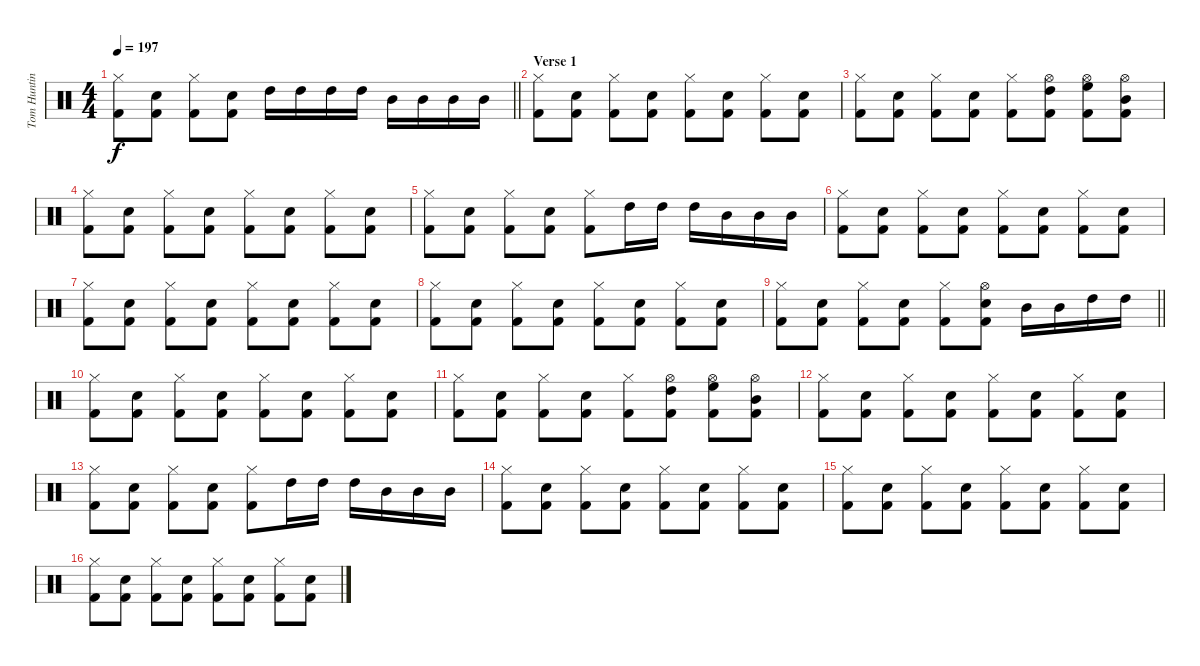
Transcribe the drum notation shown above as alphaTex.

\track ("Tom Hunting" "Tom Huntin") {instrument percussion}
\staff {score}
\articulation defaults
\ts (4 4)
\tempo 197
\clef neutral
\barLineRight lightlight
\ks c
("Hi-Hat (closed)" "Kick (hit) 2").8{dy f} ("Snare (hit) 2" "Kick (hit) 2").8 ("Hi-Hat (closed)" "Kick (hit) 2").8 ("Snare (hit) 2" "Kick (hit) 2").8 "High Tom (hit)".16 "High Tom (hit)".16 "High Tom (hit)".16 "High Tom (hit)".16 "Mid Tom (hit)".16 "Mid Tom (hit)".16 "Mid Tom (hit)".16 "Mid Tom (hit)".16 |
\section ("" "Verse 1")
("Hi-Hat (closed)" "Kick (hit) 2").8 ("Snare (hit) 2" "Kick (hit) 2").8 ("Hi-Hat (closed)" "Kick (hit) 2").8 ("Snare (hit) 2" "Kick (hit) 2").8 ("Hi-Hat (closed)" "Kick (hit) 2").8 ("Snare (hit) 2" "Kick (hit) 2").8 ("Hi-Hat (closed)" "Kick (hit) 2").8 ("Snare (hit) 2" "Kick (hit) 2").8 |
("Hi-Hat (closed)" "Kick (hit) 2").8 ("Snare (hit) 2" "Kick (hit) 2").8 ("Hi-Hat (closed)" "Kick (hit) 2").8 ("Snare (hit) 2" "Kick (hit) 2").8 ("Hi-Hat (closed)" "Kick (hit) 2").8 ("Hi-Hat (open)" "High Tom (hit)" "Kick (hit) 2").8 ("Hi-Hat (open)" "High Floor Tom (hit)" "Kick (hit) 2").8 ("Hi-Hat (open)" "Mid Tom (hit)" "Kick (hit) 2").8 |
("Hi-Hat (closed)" "Kick (hit) 2").8 ("Snare (hit) 2" "Kick (hit) 2").8 ("Hi-Hat (closed)" "Kick (hit) 2").8 ("Snare (hit) 2" "Kick (hit) 2").8 ("Hi-Hat (closed)" "Kick (hit) 2").8 ("Snare (hit) 2" "Kick (hit) 2").8 ("Hi-Hat (closed)" "Kick (hit) 2").8 ("Snare (hit) 2" "Kick (hit) 2").8 |
("Hi-Hat (closed)" "Kick (hit) 2").8 ("Snare (hit) 2" "Kick (hit) 2").8 ("Hi-Hat (closed)" "Kick (hit) 2").8 ("Snare (hit) 2" "Kick (hit) 2").8 ("Hi-Hat (closed)" "Kick (hit) 2").8 "High Tom (hit)".16 "High Tom (hit)".16 "High Tom (hit)".16 "Mid Tom (hit)".16 "Mid Tom (hit)".16 "Mid Tom (hit)".16 |
("Hi-Hat (closed)" "Kick (hit) 2").8 ("Snare (hit) 2" "Kick (hit) 2").8 ("Hi-Hat (closed)" "Kick (hit) 2").8 ("Snare (hit) 2" "Kick (hit) 2").8 ("Hi-Hat (closed)" "Kick (hit) 2").8 ("Snare (hit) 2" "Kick (hit) 2").8 ("Hi-Hat (closed)" "Kick (hit) 2").8 ("Snare (hit) 2" "Kick (hit) 2").8 |
("Hi-Hat (closed)" "Kick (hit) 2").8 ("Snare (hit) 2" "Kick (hit) 2").8 ("Hi-Hat (closed)" "Kick (hit) 2").8 ("Snare (hit) 2" "Kick (hit) 2").8 ("Hi-Hat (closed)" "Kick (hit) 2").8 ("Snare (hit) 2" "Kick (hit) 2").8 ("Hi-Hat (closed)" "Kick (hit) 2").8 ("Snare (hit) 2" "Kick (hit) 2").8 |
("Hi-Hat (closed)" "Kick (hit) 2").8 ("Snare (hit) 2" "Kick (hit) 2").8 ("Hi-Hat (closed)" "Kick (hit) 2").8 ("Snare (hit) 2" "Kick (hit) 2").8 ("Hi-Hat (closed)" "Kick (hit) 2").8 ("Snare (hit) 2" "Kick (hit) 2").8 ("Hi-Hat (closed)" "Kick (hit) 2").8 ("Snare (hit) 2" "Kick (hit) 2").8 |
\barLineRight lightlight
("Hi-Hat (closed)" "Kick (hit) 2").8 ("Snare (hit) 2" "Kick (hit) 2").8 ("Hi-Hat (closed)" "Kick (hit) 2").8 ("Snare (hit) 2" "Kick (hit) 2").8 ("Hi-Hat (closed)" "Kick (hit) 2").8 ("Hi-Hat (open)" "Snare (hit) 2" "Kick (hit) 2").8 "Mid Tom (hit)".16 "Mid Tom (hit)".16 "High Tom (hit)".16 "High Tom (hit)".16 |
("Hi-Hat (closed)" "Kick (hit) 2").8 ("Snare (hit) 2" "Kick (hit) 2").8 ("Hi-Hat (closed)" "Kick (hit) 2").8 ("Snare (hit) 2" "Kick (hit) 2").8 ("Hi-Hat (closed)" "Kick (hit) 2").8 ("Snare (hit) 2" "Kick (hit) 2").8 ("Hi-Hat (closed)" "Kick (hit) 2").8 ("Snare (hit) 2" "Kick (hit) 2").8 |
("Hi-Hat (closed)" "Kick (hit) 2").8 ("Snare (hit) 2" "Kick (hit) 2").8 ("Hi-Hat (closed)" "Kick (hit) 2").8 ("Snare (hit) 2" "Kick (hit) 2").8 ("Hi-Hat (closed)" "Kick (hit) 2").8 ("Hi-Hat (open)" "High Tom (hit)" "Kick (hit) 2").8 ("Hi-Hat (open)" "High Floor Tom (hit)" "Kick (hit) 2").8 ("Hi-Hat (open)" "Mid Tom (hit)" "Kick (hit) 2").8 |
("Hi-Hat (closed)" "Kick (hit) 2").8 ("Snare (hit) 2" "Kick (hit) 2").8 ("Hi-Hat (closed)" "Kick (hit) 2").8 ("Snare (hit) 2" "Kick (hit) 2").8 ("Hi-Hat (closed)" "Kick (hit) 2").8 ("Snare (hit) 2" "Kick (hit) 2").8 ("Hi-Hat (closed)" "Kick (hit) 2").8 ("Snare (hit) 2" "Kick (hit) 2").8 |
("Hi-Hat (closed)" "Kick (hit) 2").8 ("Snare (hit) 2" "Kick (hit) 2").8 ("Hi-Hat (closed)" "Kick (hit) 2").8 ("Snare (hit) 2" "Kick (hit) 2").8 ("Hi-Hat (closed)" "Kick (hit) 2").8 "High Tom (hit)".16 "High Tom (hit)".16 "High Tom (hit)".16 "Mid Tom (hit)".16 "Mid Tom (hit)".16 "Mid Tom (hit)".16 |
("Hi-Hat (closed)" "Kick (hit) 2").8 ("Snare (hit) 2" "Kick (hit) 2").8 ("Hi-Hat (closed)" "Kick (hit) 2").8 ("Snare (hit) 2" "Kick (hit) 2").8 ("Hi-Hat (closed)" "Kick (hit) 2").8 ("Snare (hit) 2" "Kick (hit) 2").8 ("Hi-Hat (closed)" "Kick (hit) 2").8 ("Snare (hit) 2" "Kick (hit) 2").8 |
("Hi-Hat (closed)" "Kick (hit) 2").8 ("Snare (hit) 2" "Kick (hit) 2").8 ("Hi-Hat (closed)" "Kick (hit) 2").8 ("Snare (hit) 2" "Kick (hit) 2").8 ("Hi-Hat (closed)" "Kick (hit) 2").8 ("Snare (hit) 2" "Kick (hit) 2").8 ("Hi-Hat (closed)" "Kick (hit) 2").8 ("Snare (hit) 2" "Kick (hit) 2").8 |
("Hi-Hat (closed)" "Kick (hit) 2").8 ("Snare (hit) 2" "Kick (hit) 2").8 ("Hi-Hat (closed)" "Kick (hit) 2").8 ("Snare (hit) 2" "Kick (hit) 2").8 ("Hi-Hat (closed)" "Kick (hit) 2").8 ("Snare (hit) 2" "Kick (hit) 2").8 ("Hi-Hat (closed)" "Kick (hit) 2").8 ("Snare (hit) 2" "Kick (hit) 2").8
